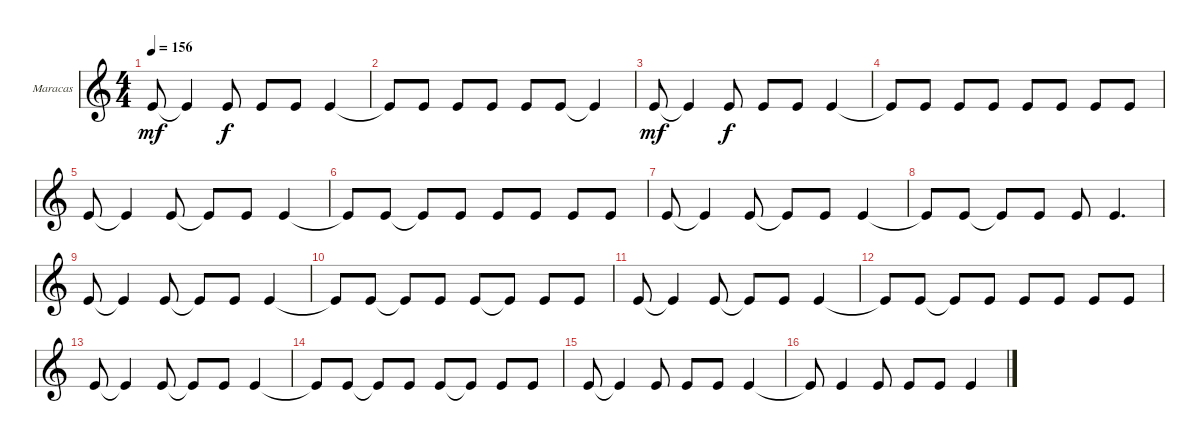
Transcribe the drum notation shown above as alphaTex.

\defaultSystemsLayout 4
\bracketExtendMode groupsimilarinstruments
\firstSystemTrackNameOrientation horizontal
\otherSystemsTrackNameOrientation horizontal
\track ("Maracas" "Maracas") {instrument percussion}
\staff {score}
\articulation defaults
\ts (4 4)
\tempo 156
\clef g2
\scale
0.333333
\ks c "Kick (hit)".8{dy mf} "Kick (hit)"{t}.4 "Kick (hit)".8{dy f} "Kick (hit)".8 "Kick (hit)".8 "Kick (hit)".4
|
\scale
0.333333 "Kick (hit)"{t}.8 "Kick (hit)".8 "Kick (hit)".8 "Kick (hit)".8 "Kick (hit)".8 "Kick (hit)".8 "Kick (hit)"{t}.4 |
\scale
0.333333 "Kick (hit)".8{dy mf} "Kick (hit)"{t}.4 "Kick (hit)".8{dy f} "Kick (hit)".8 "Kick (hit)".8 "Kick (hit)".4 |
\scale
0.333333 "Kick (hit)"{t}.8 "Kick (hit)".8 "Kick (hit)".8 "Kick (hit)".8 "Kick (hit)".8 "Kick (hit)".8 "Kick (hit)".8 "Kick (hit)".8 |
\scale
0.333333 "Kick (hit)".8 "Kick (hit)"{t}.4 "Kick (hit)".8 "Kick (hit)"{t}.8 "Kick (hit)".8 "Kick (hit)".4 |
\scale
0.333333 "Kick (hit)"{t}.8 "Kick (hit)".8 "Kick (hit)"{t}.8 "Kick (hit)".8 "Kick (hit)".8 "Kick (hit)".8 "Kick (hit)".8 "Kick (hit)".8 |
\scale
0.333333 "Kick (hit)".8 "Kick (hit)"{t}.4 "Kick (hit)".8 "Kick (hit)"{t}.8 "Kick (hit)".8 "Kick (hit)".4 |
\scale
0.333333 "Kick (hit)"{t}.8 "Kick (hit)".8 "Kick (hit)"{t}.8 "Kick (hit)".8 "Kick (hit)".8 "Kick (hit)".4{d} |
\scale
0.333333 "Kick (hit)".8 "Kick (hit)"{t}.4 "Kick (hit)".8 "Kick (hit)"{t}.8 "Kick (hit)".8 "Kick (hit)".4 |
\scale
0.333333 "Kick (hit)"{t}.8 "Kick (hit)".8 "Kick (hit)"{t}.8 "Kick (hit)".8 "Kick (hit)".8 "Kick (hit)"{t}.8 "Kick (hit)".8 "Kick (hit)".8 |
\scale
0.333333 "Kick (hit)".8 "Kick (hit)"{t}.4 "Kick (hit)".8 "Kick (hit)"{t}.8 "Kick (hit)".8 "Kick (hit)".4 |
\scale
0.333333 "Kick (hit)"{t}.8 "Kick (hit)".8 "Kick (hit)"{t}.8 "Kick (hit)".8 "Kick (hit)".8 "Kick (hit)".8 "Kick (hit)".8 "Kick (hit)".8 |
\scale
0.333333 "Kick (hit)".8 "Kick (hit)"{t}.4 "Kick (hit)".8 "Kick (hit)"{t}.8 "Kick (hit)".8 "Kick (hit)".4 |
\scale
0.333333 "Kick (hit)"{t}.8 "Kick (hit)".8 "Kick (hit)"{t}.8 "Kick (hit)".8 "Kick (hit)".8 "Kick (hit)"{t}.8 "Kick (hit)".8 "Kick (hit)".8 |
\scale
0.333333 "Kick (hit)".8 "Kick (hit)"{t}.4 "Kick (hit)".8 "Kick (hit)".8 "Kick (hit)".8 "Kick (hit)".4 |
\scale
0.333333 "Kick (hit)"{t}.8 "Kick (hit)".4 "Kick (hit)".8 "Kick (hit)".8 "Kick (hit)".8 "Kick (hit)".4
